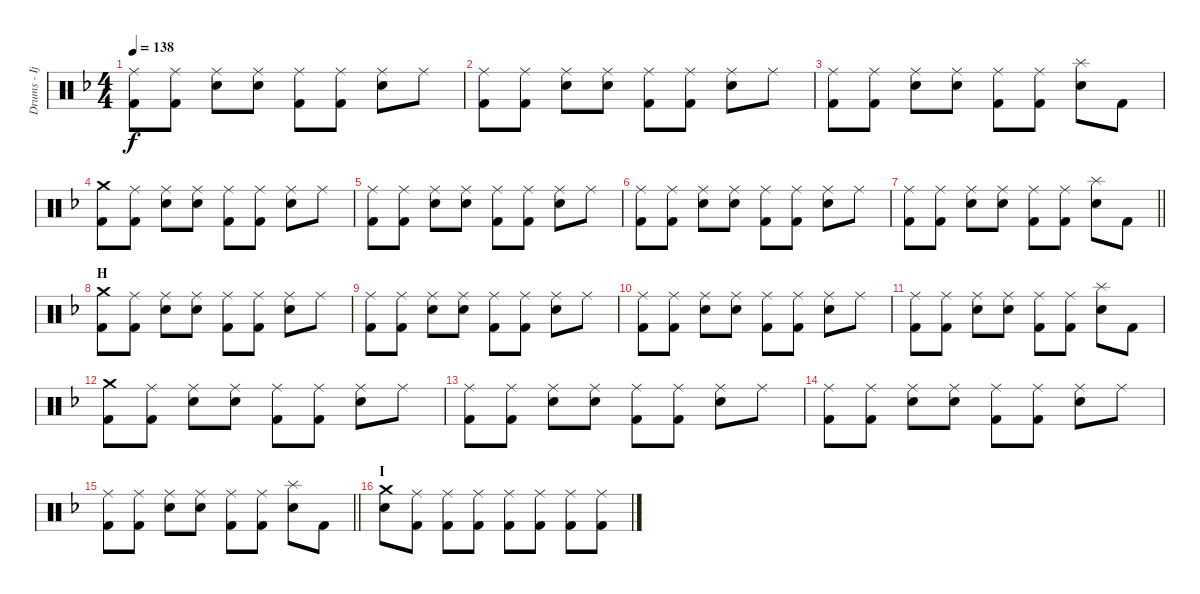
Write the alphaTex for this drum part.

\track ("Drums - Ijichi" "Drums - Ij") {instrument percussion}
\staff {score}
\articulation defaults
\ts (4 4)
\tempo 138
\clef neutral
\ks f
("Ride (middle)" "Kick (hit) 2").8{dy f} ("Ride (middle)" "Kick (hit) 2").8 ("Ride (middle)" "Electric Snare (hit)").8 ("Ride (middle)" "Electric Snare (hit)").8 ("Ride (middle)" "Kick (hit) 2").8 ("Ride (middle)" "Kick (hit) 2").8 ("Ride (middle)" "Electric Snare (hit)").8 "Ride (middle)".8 |
("Ride (middle)" "Kick (hit) 2").8 ("Ride (middle)" "Kick (hit) 2").8 ("Ride (middle)" "Electric Snare (hit)").8 ("Ride (middle)" "Electric Snare (hit)").8 ("Ride (middle)" "Kick (hit) 2").8 ("Ride (middle)" "Kick (hit) 2").8 ("Ride (middle)" "Electric Snare (hit)").8 "Ride (middle)".8 |
("Ride (middle)" "Kick (hit) 2").8 ("Ride (middle)" "Kick (hit) 2").8 ("Ride (middle)" "Electric Snare (hit)").8 ("Ride (middle)" "Electric Snare (hit)").8 ("Ride (middle)" "Kick (hit) 2").8 ("Ride (middle)" "Kick (hit) 2").8 ("Splash (hit)" "Electric Snare (hit)").8 "Kick (hit) 2".8 |
("Crash medium (hit)" "Kick (hit) 2").8 ("Ride (middle)" "Kick (hit) 2").8 ("Ride (middle)" "Electric Snare (hit)").8 ("Ride (middle)" "Electric Snare (hit)").8 ("Ride (middle)" "Kick (hit) 2").8 ("Ride (middle)" "Kick (hit) 2").8 ("Ride (middle)" "Electric Snare (hit)").8 "Ride (middle)".8 |
("Ride (middle)" "Kick (hit) 2").8 ("Ride (middle)" "Kick (hit) 2").8 ("Ride (middle)" "Electric Snare (hit)").8 ("Ride (middle)" "Electric Snare (hit)").8 ("Ride (middle)" "Kick (hit) 2").8 ("Ride (middle)" "Kick (hit) 2").8 ("Ride (middle)" "Electric Snare (hit)").8 "Ride (middle)".8 |
("Ride (middle)" "Kick (hit) 2").8 ("Ride (middle)" "Kick (hit) 2").8 ("Ride (middle)" "Electric Snare (hit)").8 ("Ride (middle)" "Electric Snare (hit)").8 ("Ride (middle)" "Kick (hit) 2").8 ("Ride (middle)" "Kick (hit) 2").8 ("Ride (middle)" "Electric Snare (hit)").8 "Ride (middle)".8 |
\barLineRight lightlight
("Ride (middle)" "Kick (hit) 2").8 ("Ride (middle)" "Kick (hit) 2").8 ("Ride (middle)" "Electric Snare (hit)").8 ("Ride (middle)" "Electric Snare (hit)").8 ("Ride (middle)" "Kick (hit) 2").8 ("Ride (middle)" "Kick (hit) 2").8 ("Splash (hit)" "Electric Snare (hit)").8 "Kick (hit) 2".8 |
\section ("" "H")
("Crash medium (hit)" "Kick (hit) 2").8 ("Ride (middle)" "Kick (hit) 2").8 ("Ride (middle)" "Electric Snare (hit)").8 ("Ride (middle)" "Electric Snare (hit)").8 ("Ride (middle)" "Kick (hit) 2").8 ("Ride (middle)" "Kick (hit) 2").8 ("Ride (middle)" "Electric Snare (hit)").8 "Ride (middle)".8 |
("Ride (middle)" "Kick (hit) 2").8 ("Ride (middle)" "Kick (hit) 2").8 ("Ride (middle)" "Electric Snare (hit)").8 ("Ride (middle)" "Electric Snare (hit)").8 ("Ride (middle)" "Kick (hit) 2").8 ("Ride (middle)" "Kick (hit) 2").8 ("Ride (middle)" "Electric Snare (hit)").8 "Ride (middle)".8 |
("Ride (middle)" "Kick (hit) 2").8 ("Ride (middle)" "Kick (hit) 2").8 ("Ride (middle)" "Electric Snare (hit)").8 ("Ride (middle)" "Electric Snare (hit)").8 ("Ride (middle)" "Kick (hit) 2").8 ("Ride (middle)" "Kick (hit) 2").8 ("Ride (middle)" "Electric Snare (hit)").8 "Ride (middle)".8 |
("Ride (middle)" "Kick (hit) 2").8 ("Ride (middle)" "Kick (hit) 2").8 ("Ride (middle)" "Electric Snare (hit)").8 ("Ride (middle)" "Electric Snare (hit)").8 ("Ride (middle)" "Kick (hit) 2").8 ("Ride (middle)" "Kick (hit) 2").8 ("Splash (hit)" "Electric Snare (hit)").8 "Kick (hit) 2".8 |
("Crash medium (hit)" "Kick (hit) 2").8 ("Ride (middle)" "Kick (hit) 2").8 ("Ride (middle)" "Electric Snare (hit)").8 ("Ride (middle)" "Electric Snare (hit)").8 ("Ride (middle)" "Kick (hit) 2").8 ("Ride (middle)" "Kick (hit) 2").8 ("Ride (middle)" "Electric Snare (hit)").8 "Ride (middle)".8 |
("Ride (middle)" "Kick (hit) 2").8 ("Ride (middle)" "Kick (hit) 2").8 ("Ride (middle)" "Electric Snare (hit)").8 ("Ride (middle)" "Electric Snare (hit)").8 ("Ride (middle)" "Kick (hit) 2").8 ("Ride (middle)" "Kick (hit) 2").8 ("Ride (middle)" "Electric Snare (hit)").8 "Ride (middle)".8 |
("Ride (middle)" "Kick (hit) 2").8 ("Ride (middle)" "Kick (hit) 2").8 ("Ride (middle)" "Electric Snare (hit)").8 ("Ride (middle)" "Electric Snare (hit)").8 ("Ride (middle)" "Kick (hit) 2").8 ("Ride (middle)" "Kick (hit) 2").8 ("Ride (middle)" "Electric Snare (hit)").8 "Ride (middle)".8 |
\barLineRight lightlight
("Ride (middle)" "Kick (hit) 2").8 ("Ride (middle)" "Kick (hit) 2").8 ("Ride (middle)" "Electric Snare (hit)").8 ("Ride (middle)" "Electric Snare (hit)").8 ("Ride (middle)" "Kick (hit) 2").8 ("Ride (middle)" "Kick (hit) 2").8 ("Splash (hit)" "Electric Snare (hit)").8 "Kick (hit) 2".8 |
\section ("" "I")
("Crash medium (hit)" "Electric Snare (hit)").8 ("Ride (middle)" "Kick (hit) 2").8 ("Ride (middle)" "Kick (hit) 2").8 ("Ride (middle)" "Kick (hit) 2").8 ("Ride (middle)" "Kick (hit) 2").8 ("Ride (middle)" "Kick (hit) 2").8 ("Ride (middle)" "Kick (hit) 2").8 ("Ride (middle)" "Kick (hit) 2").8
